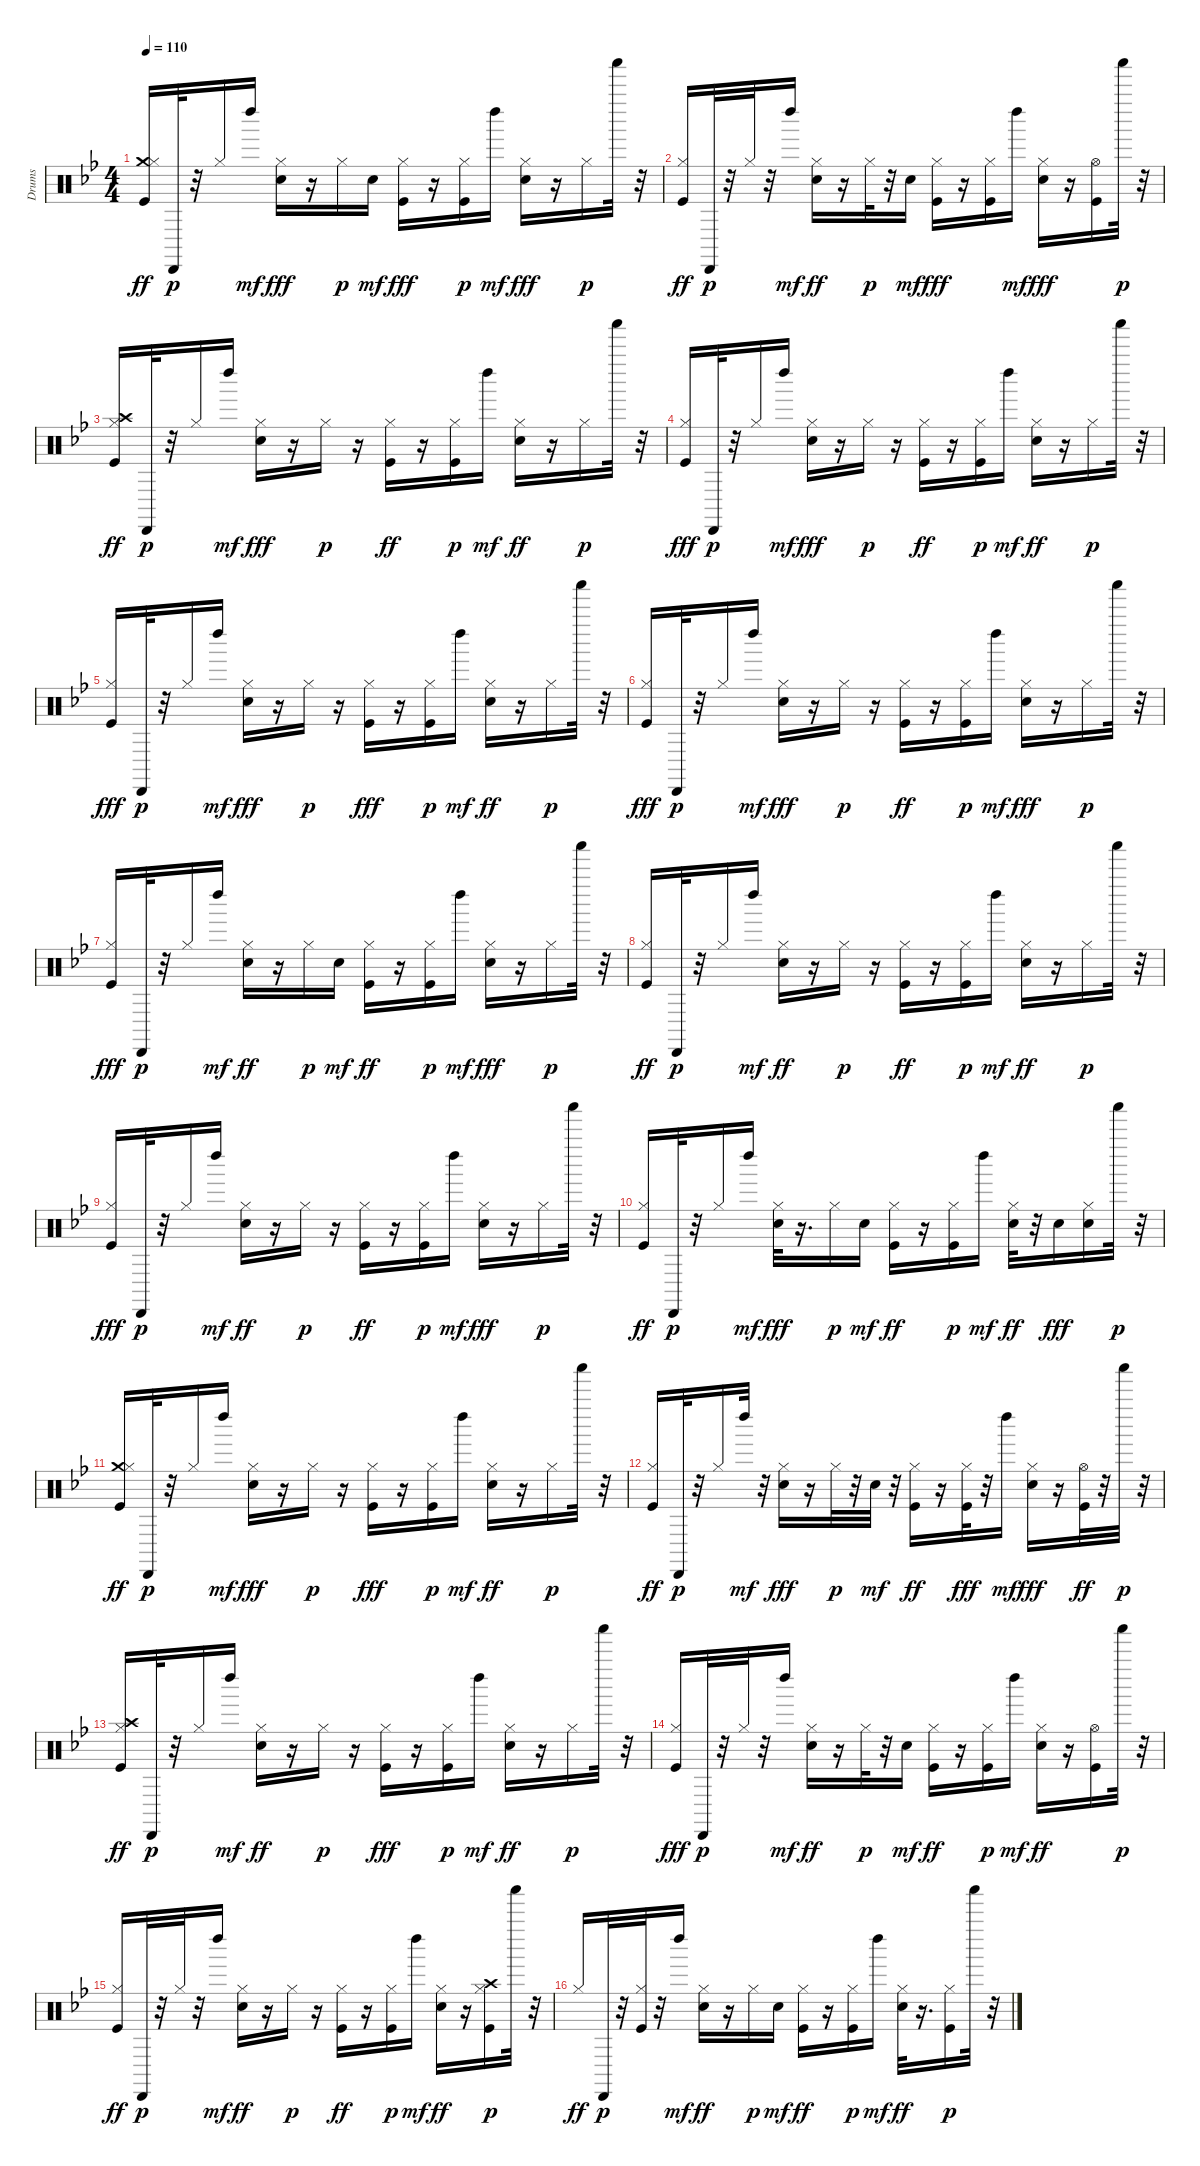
\track ("Drums" "Drums") {instrument percussion}
\staff {score}
\articulation defaults
\ts (4 4)
\tempo 110
\clef neutral
\ks bb
("Crash medium (hit)" "Kick (hit)" "Hi-Hat (closed)").16{dy ff} "Cabasa (hit)".32{dy p} r.32 "Hi-Hat (closed)".16 "Left Maraca (hit)".16{dy mf} ("Hi-Hat (closed)" "Electric Snare (hit)").16{dy fff} r.16 "Hi-Hat (closed)".16{dy p} "Electric Snare (hit)".16{dy mf} ("Hi-Hat (closed)" "Kick (hit)").16{dy fff} r.16 ("Kick (hit)" "Hi-Hat (closed)").16{dy p} "Left Maraca (hit)".16{dy mf} ("Hi-Hat (closed)" "Electric Snare (hit)").16{dy fff} r.16 "Hi-Hat (closed)".16{dy p} "Shaker (hit)".32 r.32 |
("Kick (hit)" "Hi-Hat (closed)").16{dy ff} "Cabasa (hit)".32{dy p} r.32 "Hi-Hat (closed)".32 r.32 "Left Maraca (hit)".16{dy mf} ("Electric Snare (hit)" "Hi-Hat (closed)").16{dy ff} r.16 "Hi-Hat (closed)".32{dy p} r.32 "Electric Snare (hit)".16{dy mf} ("Hi-Hat (closed)" "Kick (hit)").16{dy fff} r.16 ("Hi-Hat (closed)" "Kick (hit)").16 "Left Maraca (hit)".16{dy mf} ("Hi-Hat (closed)" "Electric Snare (hit)").16{dy fff} r.16 ("Hi-Hat (open)" "Kick (hit)").16 "Shaker (hit)".32{dy p} r.32 |
("Crash high (hit)" "Kick (hit)" "Hi-Hat (closed)").16{dy ff} "Cabasa (hit)".32{dy p} r.32 "Hi-Hat (closed)".16 "Left Maraca (hit)".16{dy mf} ("Hi-Hat (closed)" "Electric Snare (hit)").16{dy fff} r.16 "Hi-Hat (closed)".16{dy p} r.16 ("Kick (hit)" "Hi-Hat (closed)").16{dy ff} r.16 ("Kick (hit)" "Hi-Hat (closed)").16{dy p} "Left Maraca (hit)".16{dy mf} ("Electric Snare (hit)" "Hi-Hat (closed)").16{dy ff} r.16 "Hi-Hat (closed)".16{dy p} "Shaker (hit)".32 r.32 |
("Hi-Hat (closed)" "Kick (hit)").16{dy fff} "Cabasa (hit)".32{dy p} r.32 "Hi-Hat (closed)".16 "Left Maraca (hit)".16{dy mf} ("Hi-Hat (closed)" "Electric Snare (hit)").16{dy fff} r.16 "Hi-Hat (closed)".16{dy p} r.16 ("Kick (hit)" "Hi-Hat (closed)").16{dy ff} r.16 ("Kick (hit)" "Hi-Hat (closed)").16{dy p} "Left Maraca (hit)".16{dy mf} ("Electric Snare (hit)" "Hi-Hat (closed)").16{dy ff} r.16 "Hi-Hat (closed)".16{dy p} "Shaker (hit)".32 r.32 |
("Hi-Hat (closed)" "Kick (hit)").16{dy fff} "Cabasa (hit)".32{dy p} r.32 "Hi-Hat (closed)".16 "Left Maraca (hit)".16{dy mf} ("Hi-Hat (closed)" "Electric Snare (hit)").16{dy fff} r.16 "Hi-Hat (closed)".16{dy p} r.16 ("Hi-Hat (closed)" "Kick (hit)").16{dy fff} r.16 ("Kick (hit)" "Hi-Hat (closed)").16{dy p} "Left Maraca (hit)".16{dy mf} ("Electric Snare (hit)" "Hi-Hat (closed)").16{dy ff} r.16 "Hi-Hat (closed)".16{dy p} "Shaker (hit)".32 r.32 |
("Hi-Hat (closed)" "Kick (hit)").16{dy fff} "Cabasa (hit)".32{dy p} r.32 "Hi-Hat (closed)".16 "Left Maraca (hit)".16{dy mf} ("Hi-Hat (closed)" "Electric Snare (hit)").16{dy fff} r.16 "Hi-Hat (closed)".16{dy p} r.16 ("Kick (hit)" "Hi-Hat (closed)").16{dy ff} r.16 ("Kick (hit)" "Hi-Hat (closed)").16{dy p} "Left Maraca (hit)".16{dy mf} ("Hi-Hat (closed)" "Electric Snare (hit)").16{dy fff} r.16 "Hi-Hat (closed)".16{dy p} "Shaker (hit)".32 r.32 |
("Hi-Hat (closed)" "Kick (hit)").16{dy fff} "Cabasa (hit)".32{dy p} r.32 "Hi-Hat (closed)".16 "Left Maraca (hit)".16{dy mf} ("Electric Snare (hit)" "Hi-Hat (closed)").16{dy ff} r.16 "Hi-Hat (closed)".16{dy p} "Electric Snare (hit)".16{dy mf} ("Kick (hit)" "Hi-Hat (closed)").16{dy ff} r.16 ("Kick (hit)" "Hi-Hat (closed)").16{dy p} "Left Maraca (hit)".16{dy mf} ("Hi-Hat (closed)" "Electric Snare (hit)").16{dy fff} r.16 "Hi-Hat (closed)".16{dy p} "Shaker (hit)".32 r.32 |
("Kick (hit)" "Hi-Hat (closed)").16{dy ff} "Cabasa (hit)".32{dy p} r.32 "Hi-Hat (closed)".16 "Left Maraca (hit)".16{dy mf} ("Electric Snare (hit)" "Hi-Hat (closed)").16{dy ff} r.16 "Hi-Hat (closed)".16{dy p} r.16 ("Kick (hit)" "Hi-Hat (closed)").16{dy ff} r.16 ("Kick (hit)" "Hi-Hat (closed)").16{dy p} "Left Maraca (hit)".16{dy mf} ("Electric Snare (hit)" "Hi-Hat (closed)").16{dy ff} r.16 "Hi-Hat (closed)".16{dy p} "Shaker (hit)".32 r.32 |
("Hi-Hat (closed)" "Kick (hit)").16{dy fff} "Cabasa (hit)".32{dy p} r.32 "Hi-Hat (closed)".16 "Left Maraca (hit)".16{dy mf} ("Electric Snare (hit)" "Hi-Hat (closed)").16{dy ff} r.16 "Hi-Hat (closed)".16{dy p} r.16 ("Kick (hit)" "Hi-Hat (closed)").16{dy ff} r.16 ("Kick (hit)" "Hi-Hat (closed)").16{dy p} "Left Maraca (hit)".16{dy mf} ("Hi-Hat (closed)" "Electric Snare (hit)").16{dy fff} r.16 "Hi-Hat (closed)".16{dy p} "Shaker (hit)".32 r.32 |
("Kick (hit)" "Hi-Hat (closed)").16{dy ff} "Cabasa (hit)".32{dy p} r.32 "Hi-Hat (closed)".16 "Left Maraca (hit)".16{dy mf} ("Hi-Hat (closed)" "Electric Snare (hit)").32{dy fff} r.16{d} "Hi-Hat (closed)".16{dy p} "Electric Snare (hit)".16{dy mf} ("Kick (hit)" "Hi-Hat (closed)").16{dy ff} r.16 ("Kick (hit)" "Hi-Hat (closed)").16{dy p} "Left Maraca (hit)".16{dy mf} ("Electric Snare (hit)" "Hi-Hat (closed)").32{dy ff} r.32 "Electric Snare (hit)".16{dy fff} ("Hi-Hat (closed)" "Electric Snare (hit)").16 "Shaker (hit)".32{dy p} r.32 |
("Crash medium (hit)" "Kick (hit)" "Hi-Hat (closed)").16{dy ff} "Cabasa (hit)".32{dy p} r.32 "Hi-Hat (closed)".16 "Left Maraca (hit)".16{dy mf} ("Hi-Hat (closed)" "Electric Snare (hit)").16{dy fff} r.16 "Hi-Hat (closed)".16{dy p} r.16 ("Hi-Hat (closed)" "Kick (hit)").16{dy fff} r.16 ("Kick (hit)" "Hi-Hat (closed)").16{dy p} "Left Maraca (hit)".16{dy mf} ("Electric Snare (hit)" "Hi-Hat (closed)").16{dy ff} r.16 "Hi-Hat (closed)".16{dy p} "Shaker (hit)".32 r.32 |
("Kick (hit)" "Hi-Hat (closed)").16{dy ff} "Cabasa (hit)".32{dy p} r.32 "Hi-Hat (closed)".16 "Left Maraca (hit)".32{dy mf} r.32 ("Hi-Hat (closed)" "Electric Snare (hit)").16{dy fff} r.16 "Hi-Hat (closed)".32{dy p} r.32 "Electric Snare (hit)".32{dy mf} r.32 ("Kick (hit)" "Hi-Hat (closed)").16{dy ff} r.16 ("Hi-Hat (closed)" "Kick (hit)").32{dy fff} r.32 "Left Maraca (hit)".16{dy mf} ("Hi-Hat (closed)" "Electric Snare (hit)").16{dy fff} r.16 ("Kick (hit)" "Hi-Hat (open)").32{dy ff} r.32 "Shaker (hit)".32{dy p} r.32 |
("Crash high (hit)" "Kick (hit)" "Hi-Hat (closed)").16{dy ff} "Cabasa (hit)".32{dy p} r.32 "Hi-Hat (closed)".16 "Left Maraca (hit)".16{dy mf} ("Electric Snare (hit)" "Hi-Hat (closed)").16{dy ff} r.16 "Hi-Hat (closed)".16{dy p} r.16 ("Hi-Hat (closed)" "Kick (hit)").16{dy fff} r.16 ("Kick (hit)" "Hi-Hat (closed)").16{dy p} "Left Maraca (hit)".16{dy mf} ("Electric Snare (hit)" "Hi-Hat (closed)").16{dy ff} r.16 "Hi-Hat (closed)".16{dy p} "Shaker (hit)".32 r.32 |
("Hi-Hat (closed)" "Kick (hit)").16{dy fff} "Cabasa (hit)".32{dy p} r.32 "Hi-Hat (closed)".32 r.32 "Left Maraca (hit)".16{dy mf} ("Electric Snare (hit)" "Hi-Hat (closed)").16{dy ff} r.16 "Hi-Hat (closed)".32{dy p} r.32 "Electric Snare (hit)".16{dy mf} ("Kick (hit)" "Hi-Hat (closed)").16{dy ff} r.16 ("Kick (hit)" "Hi-Hat (closed)").16{dy p} "Left Maraca (hit)".16{dy mf} ("Electric Snare (hit)" "Hi-Hat (closed)").16{dy ff} r.16 ("Kick (hit)" "Hi-Hat (open)").16 "Shaker (hit)".32{dy p} r.32 |
("Kick (hit)" "Hi-Hat (closed)").16{dy ff} "Cabasa (hit)".32{dy p} r.32 "Hi-Hat (closed)".32 r.32 "Left Maraca (hit)".16{dy mf} ("Electric Snare (hit)" "Hi-Hat (closed)").16{dy ff} r.16 "Hi-Hat (closed)".16{dy p} r.16 ("Kick (hit)" "Hi-Hat (closed)").16{dy ff} r.16 ("Kick (hit)" "Hi-Hat (closed)").16{dy p} "Left Maraca (hit)".16{dy mf} ("Electric Snare (hit)" "Hi-Hat (closed)").16{dy ff} r.16 ("Crash high (hit)" "Kick (hit)" "Hi-Hat (closed)").16{dy p} "Shaker (hit)".32 r.32 |
"Hi-Hat (closed)".16{dy ff} "Cabasa (hit)".32{dy p} r.32 ("Kick (hit)" "Hi-Hat (closed)").32 r.32 "Left Maraca (hit)".16{dy mf} ("Electric Snare (hit)" "Hi-Hat (closed)").16{dy ff} r.16 "Hi-Hat (closed)".16{dy p} "Electric Snare (hit)".16{dy mf} ("Kick (hit)" "Hi-Hat (closed)").16{dy ff} r.16 ("Kick (hit)" "Hi-Hat (closed)").16{dy p} "Left Maraca (hit)".16{dy mf} ("Electric Snare (hit)" "Hi-Hat (closed)").32{dy ff} r.16{d} ("Kick (hit)" "Hi-Hat (closed)").16{dy p} "Shaker (hit)".32 r.32
